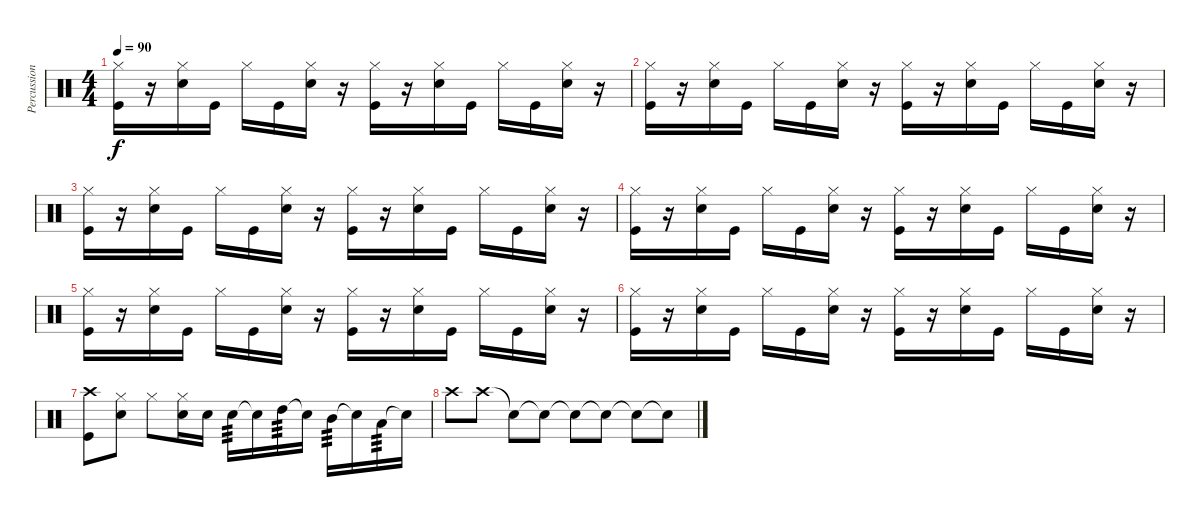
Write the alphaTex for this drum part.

\track ("Percussion" "Percussion") {instrument percussion}
\staff {score}
\articulation defaults
\ts (4 4)
\tempo 90
\clef neutral
\ks c
("Hi-Hat (closed)" "Kick (hit)").16{dy f} r.16 ("Hi-Hat (closed)" "Electric Snare (hit)").16 "Kick (hit)".16 "Hi-Hat (closed)".16 "Kick (hit)".16 ("Hi-Hat (closed)" "Electric Snare (hit)").16 r.16 ("Hi-Hat (closed)" "Kick (hit)").16 r.16 ("Hi-Hat (closed)" "Electric Snare (hit)").16 "Kick (hit)".16 "Hi-Hat (closed)".16 "Kick (hit)".16 ("Hi-Hat (closed)" "Electric Snare (hit)").16 r.16 |
("Hi-Hat (closed)" "Kick (hit)").16 r.16 ("Hi-Hat (closed)" "Electric Snare (hit)").16 "Kick (hit)".16 "Hi-Hat (closed)".16 "Kick (hit)".16 ("Hi-Hat (closed)" "Electric Snare (hit)").16 r.16 ("Hi-Hat (closed)" "Kick (hit)").16 r.16 ("Hi-Hat (closed)" "Electric Snare (hit)").16 "Kick (hit)".16 "Hi-Hat (closed)".16 "Kick (hit)".16 ("Hi-Hat (closed)" "Electric Snare (hit)").16 r.16 |
("Hi-Hat (closed)" "Kick (hit)").16 r.16 ("Hi-Hat (closed)" "Electric Snare (hit)").16 "Kick (hit)".16 "Hi-Hat (closed)".16 "Kick (hit)".16 ("Hi-Hat (closed)" "Electric Snare (hit)").16 r.16 ("Hi-Hat (closed)" "Kick (hit)").16 r.16 ("Hi-Hat (closed)" "Electric Snare (hit)").16 "Kick (hit)".16 "Hi-Hat (closed)".16 "Kick (hit)".16 ("Hi-Hat (closed)" "Electric Snare (hit)").16 r.16 |
("Hi-Hat (closed)" "Kick (hit)").16 r.16 ("Hi-Hat (closed)" "Electric Snare (hit)").16 "Kick (hit)".16 "Hi-Hat (closed)".16 "Kick (hit)".16 ("Hi-Hat (closed)" "Electric Snare (hit)").16 r.16 ("Hi-Hat (closed)" "Kick (hit)").16 r.16 ("Hi-Hat (closed)" "Electric Snare (hit)").16 "Kick (hit)".16 "Hi-Hat (closed)".16 "Kick (hit)".16 ("Hi-Hat (closed)" "Electric Snare (hit)").16 r.16 |
("Hi-Hat (closed)" "Kick (hit)").16 r.16 ("Hi-Hat (closed)" "Electric Snare (hit)").16 "Kick (hit)".16 "Hi-Hat (closed)".16 "Kick (hit)".16 ("Hi-Hat (closed)" "Electric Snare (hit)").16 r.16 ("Hi-Hat (closed)" "Kick (hit)").16 r.16 ("Hi-Hat (closed)" "Electric Snare (hit)").16 "Kick (hit)".16 "Hi-Hat (closed)".16 "Kick (hit)".16 ("Hi-Hat (closed)" "Electric Snare (hit)").16 r.16 |
("Hi-Hat (closed)" "Kick (hit)").16 r.16 ("Hi-Hat (closed)" "Electric Snare (hit)").16 "Kick (hit)".16 "Hi-Hat (closed)".16 "Kick (hit)".16 ("Hi-Hat (closed)" "Electric Snare (hit)").16 r.16 ("Hi-Hat (closed)" "Kick (hit)").16 r.16 ("Hi-Hat (closed)" "Electric Snare (hit)").16 "Kick (hit)".16 "Hi-Hat (closed)".16 "Kick (hit)".16 ("Hi-Hat (closed)" "Electric Snare (hit)").16 r.16 |
("Crash high (hit)" "Kick (hit)").8{volume 16} ("Hi-Hat (closed)" "Electric Snare (hit)").8 "Hi-Hat (closed)".8 ("Hi-Hat (closed)" "Electric Snare (hit)").16 "Electric Snare (hit)".16 "Electric Snare (hit)".16{tp 3} "Snare (hit)"{t}.16 "High Tom (hit)".16{tp 3} "Snare (hit)"{t}.16 "Mid Tom (hit)".16{tp 3} "Snare (hit)"{t}.16 "Low Tom (hit)".16{tp 3} "Snare (hit)"{t}.16 |
"Crash high (hit)".8{volume 16} "Crash high (hit)".8 "Snare (hit)"{t}.8 "Snare (hit)"{t}.8 "Snare (hit)"{t}.8 "Snare (hit)"{t}.8 "Snare (hit)"{t}.8 "Snare (hit)"{t}.8
